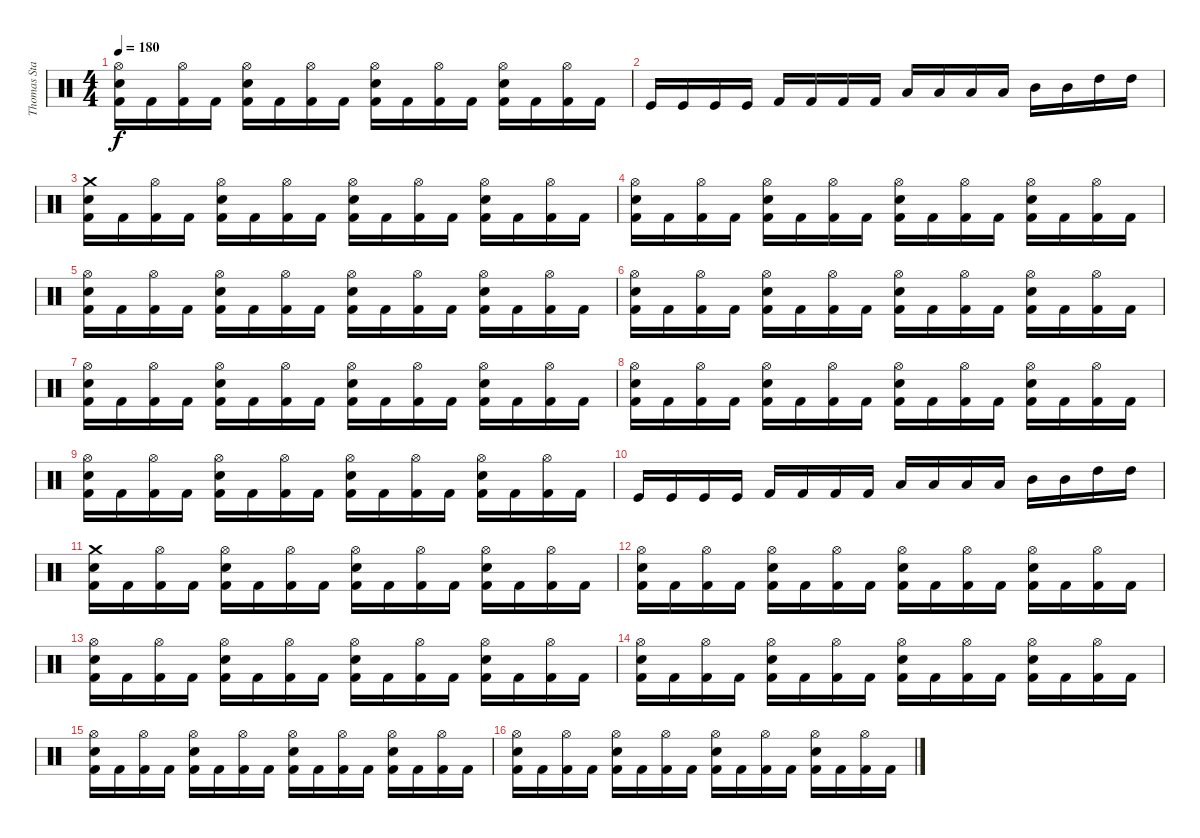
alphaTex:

\track ("Thomas Stauch" "Thomas Sta") {instrument percussion}
\staff {score}
\articulation defaults
\ts (4 4)
\tempo 180
\clef neutral
\ks c
("Kick (hit) 2" "Snare (hit) 2" "Hi-Hat (open)").16{dy f} "Kick (hit) 2".16 ("Kick (hit) 2" "Hi-Hat (open)").16 "Kick (hit) 2".16 ("Kick (hit) 2" "Snare (hit) 2" "Hi-Hat (open)").16 "Kick (hit) 2".16 ("Kick (hit) 2" "Hi-Hat (open)").16 "Kick (hit) 2".16 ("Kick (hit) 2" "Snare (hit) 2" "Hi-Hat (open)").16 "Kick (hit) 2".16 ("Kick (hit) 2" "Hi-Hat (open)").16 "Kick (hit) 2".16 ("Kick (hit) 2" "Snare (hit) 2" "Hi-Hat (open)").16 "Kick (hit) 2".16 ("Kick (hit) 2" "Hi-Hat (open)").16 "Kick (hit) 2".16 |
"Kick (hit)".16 "Kick (hit)".16 "Kick (hit)".16 "Kick (hit)".16 "Kick (hit) 2".16 "Kick (hit) 2".16 "Kick (hit) 2".16 "Kick (hit) 2".16 "Low Tom (hit)".16 "Low Tom (hit)".16 "Low Tom (hit)".16 "Low Tom (hit)".16 "Mid Tom (hit)".16 "Mid Tom (hit)".16 "High Tom (hit)".16 "High Tom (hit)".16 |
("Kick (hit) 2" "Snare (hit) 2" "Crash medium (hit)").16 "Kick (hit) 2".16 ("Kick (hit) 2" "Hi-Hat (open)").16 "Kick (hit) 2".16 ("Kick (hit) 2" "Snare (hit) 2" "Hi-Hat (open)").16 "Kick (hit) 2".16 ("Kick (hit) 2" "Hi-Hat (open)").16 "Kick (hit) 2".16 ("Kick (hit) 2" "Snare (hit) 2" "Hi-Hat (open)").16 "Kick (hit) 2".16 ("Kick (hit) 2" "Hi-Hat (open)").16 "Kick (hit) 2".16 ("Kick (hit) 2" "Snare (hit) 2" "Hi-Hat (open)").16 "Kick (hit) 2".16 ("Kick (hit) 2" "Hi-Hat (open)").16 "Kick (hit) 2".16 |
("Kick (hit) 2" "Snare (hit) 2" "Hi-Hat (open)").16 "Kick (hit) 2".16 ("Kick (hit) 2" "Hi-Hat (open)").16 "Kick (hit) 2".16 ("Kick (hit) 2" "Snare (hit) 2" "Hi-Hat (open)").16 "Kick (hit) 2".16 ("Kick (hit) 2" "Hi-Hat (open)").16 "Kick (hit) 2".16 ("Kick (hit) 2" "Snare (hit) 2" "Hi-Hat (open)").16 "Kick (hit) 2".16 ("Kick (hit) 2" "Hi-Hat (open)").16 "Kick (hit) 2".16 ("Kick (hit) 2" "Snare (hit) 2" "Hi-Hat (open)").16 "Kick (hit) 2".16 ("Kick (hit) 2" "Hi-Hat (open)").16 "Kick (hit) 2".16 |
("Kick (hit) 2" "Snare (hit) 2" "Hi-Hat (open)").16 "Kick (hit) 2".16 ("Kick (hit) 2" "Hi-Hat (open)").16 "Kick (hit) 2".16 ("Kick (hit) 2" "Snare (hit) 2" "Hi-Hat (open)").16 "Kick (hit) 2".16 ("Kick (hit) 2" "Hi-Hat (open)").16 "Kick (hit) 2".16 ("Kick (hit) 2" "Snare (hit) 2" "Hi-Hat (open)").16 "Kick (hit) 2".16 ("Kick (hit) 2" "Hi-Hat (open)").16 "Kick (hit) 2".16 ("Kick (hit) 2" "Snare (hit) 2" "Hi-Hat (open)").16 "Kick (hit) 2".16 ("Kick (hit) 2" "Hi-Hat (open)").16 "Kick (hit) 2".16 |
("Kick (hit) 2" "Snare (hit) 2" "Hi-Hat (open)").16 "Kick (hit) 2".16 ("Kick (hit) 2" "Hi-Hat (open)").16 "Kick (hit) 2".16 ("Kick (hit) 2" "Snare (hit) 2" "Hi-Hat (open)").16 "Kick (hit) 2".16 ("Kick (hit) 2" "Hi-Hat (open)").16 "Kick (hit) 2".16 ("Kick (hit) 2" "Snare (hit) 2" "Hi-Hat (open)").16 "Kick (hit) 2".16 ("Kick (hit) 2" "Hi-Hat (open)").16 "Kick (hit) 2".16 ("Kick (hit) 2" "Snare (hit) 2" "Hi-Hat (open)").16 "Kick (hit) 2".16 ("Kick (hit) 2" "Hi-Hat (open)").16 "Kick (hit) 2".16 |
("Kick (hit) 2" "Snare (hit) 2" "Hi-Hat (open)").16 "Kick (hit) 2".16 ("Kick (hit) 2" "Hi-Hat (open)").16 "Kick (hit) 2".16 ("Kick (hit) 2" "Snare (hit) 2" "Hi-Hat (open)").16 "Kick (hit) 2".16 ("Kick (hit) 2" "Hi-Hat (open)").16 "Kick (hit) 2".16 ("Kick (hit) 2" "Snare (hit) 2" "Hi-Hat (open)").16 "Kick (hit) 2".16 ("Kick (hit) 2" "Hi-Hat (open)").16 "Kick (hit) 2".16 ("Kick (hit) 2" "Snare (hit) 2" "Hi-Hat (open)").16 "Kick (hit) 2".16 ("Kick (hit) 2" "Hi-Hat (open)").16 "Kick (hit) 2".16 |
("Kick (hit) 2" "Snare (hit) 2" "Hi-Hat (open)").16 "Kick (hit) 2".16 ("Kick (hit) 2" "Hi-Hat (open)").16 "Kick (hit) 2".16 ("Kick (hit) 2" "Snare (hit) 2" "Hi-Hat (open)").16 "Kick (hit) 2".16 ("Kick (hit) 2" "Hi-Hat (open)").16 "Kick (hit) 2".16 ("Kick (hit) 2" "Snare (hit) 2" "Hi-Hat (open)").16 "Kick (hit) 2".16 ("Kick (hit) 2" "Hi-Hat (open)").16 "Kick (hit) 2".16 ("Kick (hit) 2" "Snare (hit) 2" "Hi-Hat (open)").16 "Kick (hit) 2".16 ("Kick (hit) 2" "Hi-Hat (open)").16 "Kick (hit) 2".16 |
("Kick (hit) 2" "Snare (hit) 2" "Hi-Hat (open)").16 "Kick (hit) 2".16 ("Kick (hit) 2" "Hi-Hat (open)").16 "Kick (hit) 2".16 ("Kick (hit) 2" "Snare (hit) 2" "Hi-Hat (open)").16 "Kick (hit) 2".16 ("Kick (hit) 2" "Hi-Hat (open)").16 "Kick (hit) 2".16 ("Kick (hit) 2" "Snare (hit) 2" "Hi-Hat (open)").16 "Kick (hit) 2".16 ("Kick (hit) 2" "Hi-Hat (open)").16 "Kick (hit) 2".16 ("Kick (hit) 2" "Snare (hit) 2" "Hi-Hat (open)").16 "Kick (hit) 2".16 ("Kick (hit) 2" "Hi-Hat (open)").16 "Kick (hit) 2".16 |
"Kick (hit)".16 "Kick (hit)".16 "Kick (hit)".16 "Kick (hit)".16 "Kick (hit) 2".16 "Kick (hit) 2".16 "Kick (hit) 2".16 "Kick (hit) 2".16 "Low Tom (hit)".16 "Low Tom (hit)".16 "Low Tom (hit)".16 "Low Tom (hit)".16 "Mid Tom (hit)".16 "Mid Tom (hit)".16 "High Tom (hit)".16 "High Tom (hit)".16 |
("Kick (hit) 2" "Snare (hit) 2" "Crash medium (hit)").16 "Kick (hit) 2".16 ("Kick (hit) 2" "Hi-Hat (open)").16 "Kick (hit) 2".16 ("Kick (hit) 2" "Snare (hit) 2" "Hi-Hat (open)").16 "Kick (hit) 2".16 ("Kick (hit) 2" "Hi-Hat (open)").16 "Kick (hit) 2".16 ("Kick (hit) 2" "Snare (hit) 2" "Hi-Hat (open)").16 "Kick (hit) 2".16 ("Kick (hit) 2" "Hi-Hat (open)").16 "Kick (hit) 2".16 ("Kick (hit) 2" "Snare (hit) 2" "Hi-Hat (open)").16 "Kick (hit) 2".16 ("Kick (hit) 2" "Hi-Hat (open)").16 "Kick (hit) 2".16 |
("Kick (hit) 2" "Snare (hit) 2" "Hi-Hat (open)").16 "Kick (hit) 2".16 ("Kick (hit) 2" "Hi-Hat (open)").16 "Kick (hit) 2".16 ("Kick (hit) 2" "Snare (hit) 2" "Hi-Hat (open)").16 "Kick (hit) 2".16 ("Kick (hit) 2" "Hi-Hat (open)").16 "Kick (hit) 2".16 ("Kick (hit) 2" "Snare (hit) 2" "Hi-Hat (open)").16 "Kick (hit) 2".16 ("Kick (hit) 2" "Hi-Hat (open)").16 "Kick (hit) 2".16 ("Kick (hit) 2" "Snare (hit) 2" "Hi-Hat (open)").16 "Kick (hit) 2".16 ("Kick (hit) 2" "Hi-Hat (open)").16 "Kick (hit) 2".16 |
("Kick (hit) 2" "Snare (hit) 2" "Hi-Hat (open)").16 "Kick (hit) 2".16 ("Kick (hit) 2" "Hi-Hat (open)").16 "Kick (hit) 2".16 ("Kick (hit) 2" "Snare (hit) 2" "Hi-Hat (open)").16 "Kick (hit) 2".16 ("Kick (hit) 2" "Hi-Hat (open)").16 "Kick (hit) 2".16 ("Kick (hit) 2" "Snare (hit) 2" "Hi-Hat (open)").16 "Kick (hit) 2".16 ("Kick (hit) 2" "Hi-Hat (open)").16 "Kick (hit) 2".16 ("Kick (hit) 2" "Snare (hit) 2" "Hi-Hat (open)").16 "Kick (hit) 2".16 ("Kick (hit) 2" "Hi-Hat (open)").16 "Kick (hit) 2".16 |
("Kick (hit) 2" "Snare (hit) 2" "Hi-Hat (open)").16 "Kick (hit) 2".16 ("Kick (hit) 2" "Hi-Hat (open)").16 "Kick (hit) 2".16 ("Kick (hit) 2" "Snare (hit) 2" "Hi-Hat (open)").16 "Kick (hit) 2".16 ("Kick (hit) 2" "Hi-Hat (open)").16 "Kick (hit) 2".16 ("Kick (hit) 2" "Snare (hit) 2" "Hi-Hat (open)").16 "Kick (hit) 2".16 ("Kick (hit) 2" "Hi-Hat (open)").16 "Kick (hit) 2".16 ("Kick (hit) 2" "Snare (hit) 2" "Hi-Hat (open)").16 "Kick (hit) 2".16 ("Kick (hit) 2" "Hi-Hat (open)").16 "Kick (hit) 2".16 |
("Kick (hit) 2" "Snare (hit) 2" "Hi-Hat (open)").16 "Kick (hit) 2".16 ("Kick (hit) 2" "Hi-Hat (open)").16 "Kick (hit) 2".16 ("Kick (hit) 2" "Snare (hit) 2" "Hi-Hat (open)").16 "Kick (hit) 2".16 ("Kick (hit) 2" "Hi-Hat (open)").16 "Kick (hit) 2".16 ("Kick (hit) 2" "Snare (hit) 2" "Hi-Hat (open)").16 "Kick (hit) 2".16 ("Kick (hit) 2" "Hi-Hat (open)").16 "Kick (hit) 2".16 ("Kick (hit) 2" "Snare (hit) 2" "Hi-Hat (open)").16 "Kick (hit) 2".16 ("Kick (hit) 2" "Hi-Hat (open)").16 "Kick (hit) 2".16 |
("Kick (hit) 2" "Snare (hit) 2" "Hi-Hat (open)").16 "Kick (hit) 2".16 ("Kick (hit) 2" "Hi-Hat (open)").16 "Kick (hit) 2".16 ("Kick (hit) 2" "Snare (hit) 2" "Hi-Hat (open)").16 "Kick (hit) 2".16 ("Kick (hit) 2" "Hi-Hat (open)").16 "Kick (hit) 2".16 ("Kick (hit) 2" "Snare (hit) 2" "Hi-Hat (open)").16 "Kick (hit) 2".16 ("Kick (hit) 2" "Hi-Hat (open)").16 "Kick (hit) 2".16 ("Kick (hit) 2" "Snare (hit) 2" "Hi-Hat (open)").16 "Kick (hit) 2".16 ("Kick (hit) 2" "Hi-Hat (open)").16 "Kick (hit) 2".16
